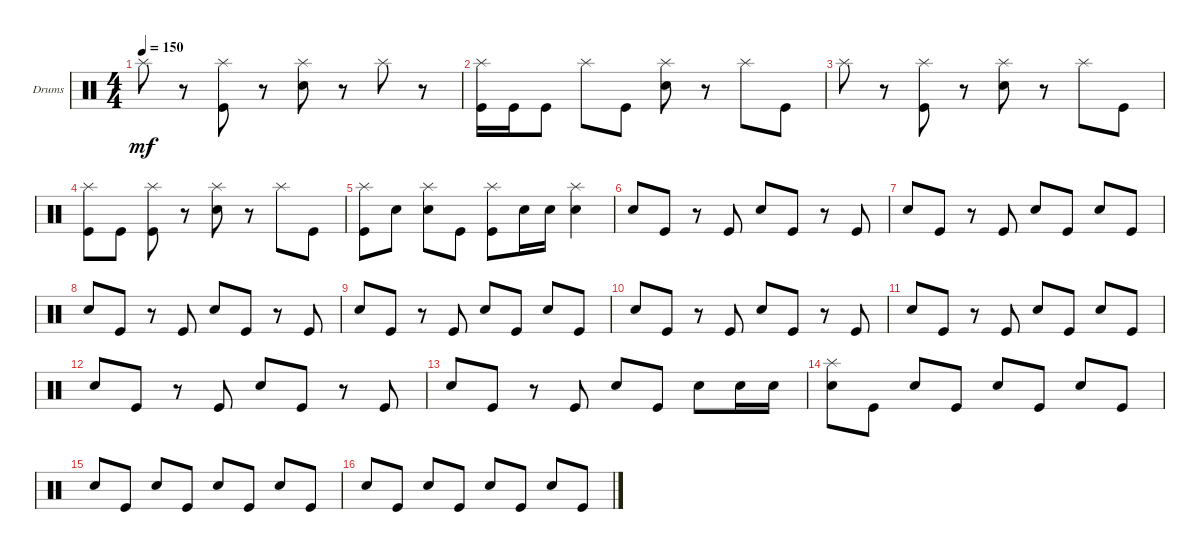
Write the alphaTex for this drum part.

\bracketExtendMode groupsimilarinstruments
\firstSystemTrackNameOrientation horizontal
\otherSystemsTrackNameOrientation horizontal
\track ("Drumkit" "Drums") {instrument percussion}
\staff {score}
\articulation defaults
\ts (4 4)
\tempo 150
\clef neutral
\ks c "Splash (hit)".8{dy mf}
r.8 ("Kick (hit)" "Splash (hit)").8 r.8 ("Snare (hit) 2" "Splash (hit)").8 r.8 "Splash (hit)".8 r.8 |
("Kick (hit)" "Splash (hit)").16 "Kick (hit)".16 "Kick (hit)".8 "Splash (hit)".8 "Kick (hit)".8 ("Snare (hit) 2" "Splash (hit)").8 r.8 "Splash (hit)".8 "Kick (hit)".8 |
"Splash (hit)".8 r.8 ("Kick (hit)" "Splash (hit)").8 r.8 ("Snare (hit) 2" "Splash (hit)").8 r.8 "Splash (hit)".8 "Kick (hit)".8 |
("Kick (hit)" "Splash (hit)").8 "Kick (hit)".8 ("Kick (hit)" "Splash (hit)").8 r.8 ("Snare (hit) 2" "Splash (hit)").8 r.8 "Splash (hit)".8 "Kick (hit)".8 |
("Splash (hit)" "Kick (hit)").8 "Snare (hit) 2".8 ("Splash (hit)" "Snare (hit) 2").8 "Kick (hit)".8 ("Splash (hit)" "Kick (hit)").8 "Snare (hit) 2".16 "Snare (hit) 2".16 ("Snare (hit) 2" "Splash (hit)").4 |
"Snare (hit) 2".8 "Kick (hit)".8 r.8 "Kick (hit)".8 "Snare (hit) 2".8 "Kick (hit)".8 r.8 "Kick (hit)".8 |
"Snare (hit) 2".8 "Kick (hit)".8 r.8 "Kick (hit)".8 "Snare (hit) 2".8 "Kick (hit)".8 "Snare (hit) 2".8 "Kick (hit)".8 |
"Snare (hit) 2".8 "Kick (hit)".8 r.8 "Kick (hit)".8 "Snare (hit) 2".8 "Kick (hit)".8 r.8 "Kick (hit)".8 |
"Snare (hit) 2".8 "Kick (hit)".8 r.8 "Kick (hit)".8 "Snare (hit) 2".8 "Kick (hit)".8 "Snare (hit) 2".8 "Kick (hit)".8 |
"Snare (hit) 2".8 "Kick (hit)".8 r.8 "Kick (hit)".8 "Snare (hit) 2".8 "Kick (hit)".8 r.8 "Kick (hit)".8 |
"Snare (hit) 2".8 "Kick (hit)".8 r.8 "Kick (hit)".8 "Snare (hit) 2".8 "Kick (hit)".8 "Snare (hit) 2".8 "Kick (hit)".8 |
"Snare (hit) 2".8 "Kick (hit)".8 r.8 "Kick (hit)".8 "Snare (hit) 2".8 "Kick (hit)".8 r.8 "Kick (hit)".8 |
"Snare (hit) 2".8 "Kick (hit)".8 r.8 "Kick (hit)".8 "Snare (hit) 2".8 "Kick (hit)".8 "Snare (hit) 2".8 "Snare (hit) 2".16 "Snare (hit) 2".16 |
("Splash (hit)" "Snare (hit) 2").8 "Kick (hit)".8 "Snare (hit) 2".8 "Kick (hit)".8 "Snare (hit) 2".8 "Kick (hit)".8 "Snare (hit) 2".8 "Kick (hit)".8 |
"Snare (hit) 2".8 "Kick (hit)".8 "Snare (hit) 2".8 "Kick (hit)".8 "Snare (hit) 2".8 "Kick (hit)".8 "Snare (hit) 2".8 "Kick (hit)".8 |
"Snare (hit) 2".8 "Kick (hit)".8 "Snare (hit) 2".8 "Kick (hit)".8 "Snare (hit) 2".8 "Kick (hit)".8 "Snare (hit) 2".8 "Kick (hit)".8
